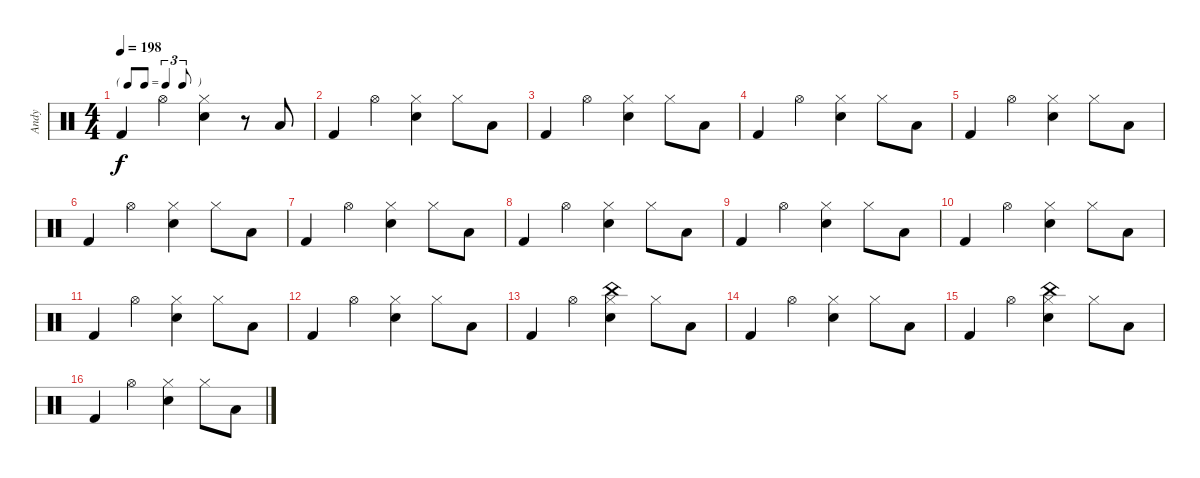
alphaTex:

\track ("Andy" "Andy") {instrument percussion}
\staff {score}
\articulation defaults
\ts (4 4)
\tf triplet8th
\tempo 198
\clef neutral
\ks c "Kick (hit) 2".4{dy f} "Hi-Hat (open)".4
("Hi-Hat (closed)" "Electric Snare (hit)").4 r.8 "Low Floor Tom (hit)".8 |
"Kick (hit) 2".4 "Hi-Hat (open)".4 ("Hi-Hat (closed)" "Electric Snare (hit)").4 "Hi-Hat (closed)".8 "Low Floor Tom (hit)".8 |
"Kick (hit) 2".4 "Hi-Hat (open)".4 ("Hi-Hat (closed)" "Electric Snare (hit)").4 "Hi-Hat (closed)".8 "Low Floor Tom (hit)".8 |
"Kick (hit) 2".4 "Hi-Hat (open)".4 ("Hi-Hat (closed)" "Electric Snare (hit)").4 "Hi-Hat (closed)".8 "Low Floor Tom (hit)".8 |
"Kick (hit) 2".4 "Hi-Hat (open)".4 ("Hi-Hat (closed)" "Electric Snare (hit)").4 "Hi-Hat (closed)".8 "Low Floor Tom (hit)".8 |
"Kick (hit) 2".4 "Hi-Hat (open)".4 ("Hi-Hat (closed)" "Electric Snare (hit)").4 "Hi-Hat (closed)".8 "Low Floor Tom (hit)".8 |
"Kick (hit) 2".4 "Hi-Hat (open)".4 ("Hi-Hat (closed)" "Electric Snare (hit)").4 "Hi-Hat (closed)".8 "Low Floor Tom (hit)".8 |
"Kick (hit) 2".4 "Hi-Hat (open)".4 ("Hi-Hat (closed)" "Electric Snare (hit)").4 "Hi-Hat (closed)".8 "Low Floor Tom (hit)".8 |
"Kick (hit) 2".4 "Hi-Hat (open)".4 ("Hi-Hat (closed)" "Electric Snare (hit)").4 "Hi-Hat (closed)".8 "Low Floor Tom (hit)".8 |
"Kick (hit) 2".4 "Hi-Hat (open)".4 ("Hi-Hat (closed)" "Electric Snare (hit)").4 "Hi-Hat (closed)".8 "Low Floor Tom (hit)".8 |
"Kick (hit) 2".4 "Hi-Hat (open)".4 ("Hi-Hat (closed)" "Electric Snare (hit)").4 "Hi-Hat (closed)".8 "Low Floor Tom (hit)".8 |
"Kick (hit) 2".4 "Hi-Hat (open)".4 ("Hi-Hat (closed)" "Electric Snare (hit)").4 "Hi-Hat (closed)".8 "Low Floor Tom (hit)".8 |
"Kick (hit) 2".4 "Hi-Hat (open)".4 ("China (hit)" "Hi-Hat (closed)" "Electric Snare (hit)").4 "Hi-Hat (closed)".8 "Low Floor Tom (hit)".8 |
"Kick (hit) 2".4 "Hi-Hat (open)".4 ("Hi-Hat (closed)" "Electric Snare (hit)").4 "Hi-Hat (closed)".8 "Low Floor Tom (hit)".8 |
"Kick (hit) 2".4 "Hi-Hat (open)".4 ("China (hit)" "Hi-Hat (closed)" "Electric Snare (hit)").4 "Hi-Hat (closed)".8 "Low Floor Tom (hit)".8 |
"Kick (hit) 2".4 "Hi-Hat (open)".4 ("Hi-Hat (closed)" "Electric Snare (hit)").4 "Hi-Hat (closed)".8 "Low Floor Tom (hit)".8
